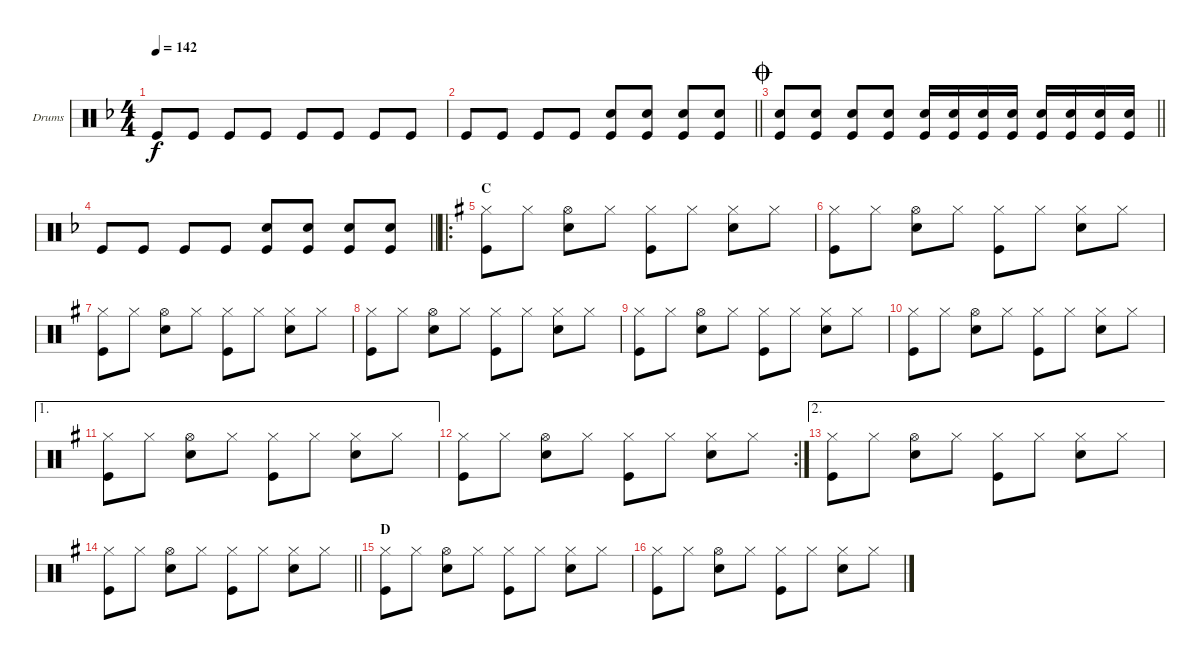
\bracketExtendMode groupsimilarinstruments
\firstSystemTrackNameOrientation horizontal
\otherSystemsTrackNameOrientation horizontal
\track ("Drumkit" "Drums") {instrument percussion}
\staff {score}
\articulation defaults
\ts (4 4)
\tempo 142
\clef neutral
\ks f "Kick (hit)".8{dy f} "Kick (hit)".8 "Kick (hit)".8 "Kick (hit)".8 "Kick (hit)".8 "Kick (hit)".8 "Kick (hit)".8 "Kick (hit)".8
|
\barLineRight lightlight "Kick (hit)".8 "Kick (hit)".8 "Kick (hit)".8 "Kick (hit)".8
("Kick (hit)" "Snare (hit) 2").8 ("Kick (hit)" "Snare (hit) 2").8 ("Kick (hit)" "Snare (hit) 2").8 ("Kick (hit)" "Snare (hit) 2").8 |
\jump coda
\barLineRight lightlight
("Kick (hit)" "Snare (hit) 2").8 ("Kick (hit)" "Snare (hit) 2").8 ("Kick (hit)" "Snare (hit) 2").8 ("Kick (hit)" "Snare (hit) 2").8 ("Snare (hit) 2" "Kick (hit)").16 ("Snare (hit) 2" "Kick (hit)").16 ("Snare (hit) 2" "Kick (hit)").16 ("Snare (hit) 2" "Kick (hit)").16 ("Snare (hit) 2" "Kick (hit)").16 ("Snare (hit) 2" "Kick (hit)").16 ("Snare (hit) 2" "Kick (hit)").16 ("Snare (hit) 2" "Kick (hit)").16 |
\barLineRight lightlight "Kick (hit)".8 "Kick (hit)".8 "Kick (hit)".8 "Kick (hit)".8
("Kick (hit)" "Snare (hit) 2").8 ("Kick (hit)" "Snare (hit) 2").8 ("Kick (hit)" "Snare (hit) 2").8 ("Kick (hit)" "Snare (hit) 2").8 |
\ro
\section ("" "C")
\ks g
("Hi-Hat (closed)" "Kick (hit)").8 "Hi-Hat (closed)".8 ("Hi-Hat (open)" "Snare (hit) 2").8 "Hi-Hat (closed)".8 ("Hi-Hat (closed)" "Kick (hit)").8 "Hi-Hat (closed)".8 ("Hi-Hat (closed)" "Snare (hit) 2").8 "Hi-Hat (closed)".8 |
("Hi-Hat (closed)" "Kick (hit)").8 "Hi-Hat (closed)".8 ("Hi-Hat (open)" "Snare (hit) 2").8 "Hi-Hat (closed)".8 ("Hi-Hat (closed)" "Kick (hit)").8 "Hi-Hat (closed)".8 ("Hi-Hat (closed)" "Snare (hit) 2").8 "Hi-Hat (closed)".8 |
("Hi-Hat (closed)" "Kick (hit)").8 "Hi-Hat (closed)".8 ("Hi-Hat (open)" "Snare (hit) 2").8 "Hi-Hat (closed)".8 ("Hi-Hat (closed)" "Kick (hit)").8 "Hi-Hat (closed)".8 ("Hi-Hat (closed)" "Snare (hit) 2").8 "Hi-Hat (closed)".8 |
("Hi-Hat (closed)" "Kick (hit)").8 "Hi-Hat (closed)".8 ("Hi-Hat (open)" "Snare (hit) 2").8 "Hi-Hat (closed)".8 ("Hi-Hat (closed)" "Kick (hit)").8 "Hi-Hat (closed)".8 ("Hi-Hat (closed)" "Snare (hit) 2").8 "Hi-Hat (closed)".8 |
("Hi-Hat (closed)" "Kick (hit)").8 "Hi-Hat (closed)".8 ("Hi-Hat (open)" "Snare (hit) 2").8 "Hi-Hat (closed)".8 ("Hi-Hat (closed)" "Kick (hit)").8 "Hi-Hat (closed)".8 ("Hi-Hat (closed)" "Snare (hit) 2").8 "Hi-Hat (closed)".8 |
("Hi-Hat (closed)" "Kick (hit)").8 "Hi-Hat (closed)".8 ("Hi-Hat (open)" "Snare (hit) 2").8 "Hi-Hat (closed)".8 ("Hi-Hat (closed)" "Kick (hit)").8 "Hi-Hat (closed)".8 ("Hi-Hat (closed)" "Snare (hit) 2").8 "Hi-Hat (closed)".8 |
\ae 1
("Hi-Hat (closed)" "Kick (hit)").8 "Hi-Hat (closed)".8 ("Hi-Hat (open)" "Snare (hit) 2").8 "Hi-Hat (closed)".8 ("Hi-Hat (closed)" "Kick (hit)").8 "Hi-Hat (closed)".8 ("Hi-Hat (closed)" "Snare (hit) 2").8 "Hi-Hat (closed)".8 |
\rc 2
("Hi-Hat (closed)" "Kick (hit)").8 "Hi-Hat (closed)".8 ("Hi-Hat (open)" "Snare (hit) 2").8 "Hi-Hat (closed)".8 ("Hi-Hat (closed)" "Kick (hit)").8 "Hi-Hat (closed)".8 ("Hi-Hat (closed)" "Snare (hit) 2").8 "Hi-Hat (closed)".8 |
\ae 2
("Hi-Hat (closed)" "Kick (hit)").8 "Hi-Hat (closed)".8 ("Hi-Hat (open)" "Snare (hit) 2").8 "Hi-Hat (closed)".8 ("Hi-Hat (closed)" "Kick (hit)").8 "Hi-Hat (closed)".8 ("Hi-Hat (closed)" "Snare (hit) 2").8 "Hi-Hat (closed)".8 |
\barLineRight lightlight
("Hi-Hat (closed)" "Kick (hit)").8 "Hi-Hat (closed)".8 ("Hi-Hat (open)" "Snare (hit) 2").8 "Hi-Hat (closed)".8 ("Hi-Hat (closed)" "Kick (hit)").8 "Hi-Hat (closed)".8 ("Hi-Hat (closed)" "Snare (hit) 2").8 "Hi-Hat (closed)".8 |
\section ("" "D")
("Hi-Hat (closed)" "Kick (hit)").8 "Hi-Hat (closed)".8 ("Hi-Hat (open)" "Snare (hit) 2").8 "Hi-Hat (closed)".8 ("Hi-Hat (closed)" "Kick (hit)").8 "Hi-Hat (closed)".8 ("Hi-Hat (closed)" "Snare (hit) 2").8 "Hi-Hat (closed)".8 |
("Hi-Hat (closed)" "Kick (hit)").8 "Hi-Hat (closed)".8 ("Hi-Hat (open)" "Snare (hit) 2").8 "Hi-Hat (closed)".8 ("Hi-Hat (closed)" "Kick (hit)").8 "Hi-Hat (closed)".8 ("Hi-Hat (closed)" "Snare (hit) 2").8 "Hi-Hat (closed)".8
